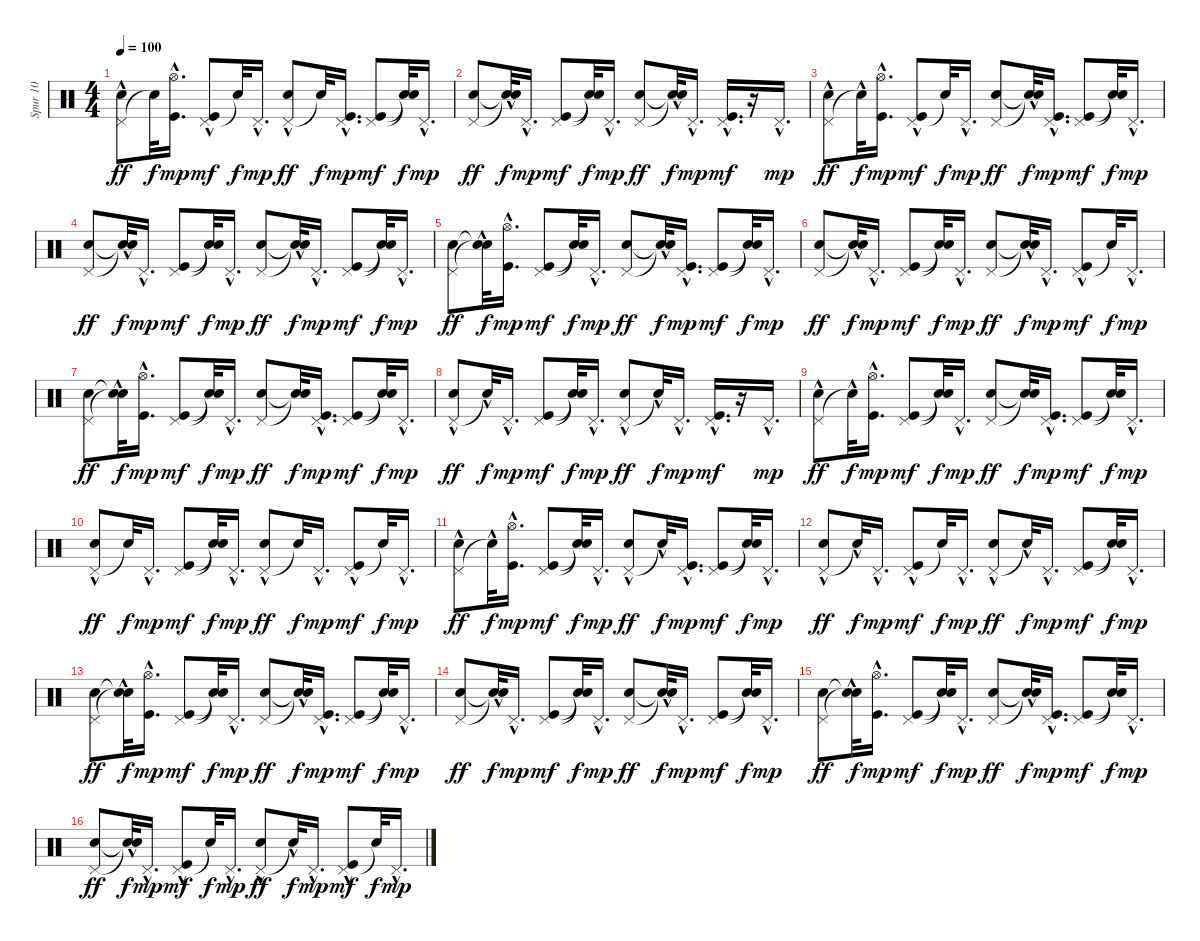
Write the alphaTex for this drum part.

\track ("Spur 10" "Spur 10") {instrument percussion}
\staff {score}
\articulation defaults
\ts (4 4)
\tempo 100
\clef neutral
\ks c
("Pedal Hi-Hat (hit)"{hac} "Hand Clap (hit)").8{dy ff} "Snare (hit)"{t}.32{dy f} ("Hi-Hat (open)"{hac} "Kick (hit)"{hac}).16{d dy mp} ("Pedal Hi-Hat (hit)" "Kick (hit)"{hac}).8{dy mf} "Snare (hit)"{t}.32{dy f} "Pedal Hi-Hat (hit)"{hac}.16{d dy mp} ("Pedal Hi-Hat (hit)" "Hand Clap (hit)"{hac}).8{dy ff} "Snare (hit)"{t}.32{dy f} ("Pedal Hi-Hat (hit)"{hac} "Kick (hit)"{hac}).16{d dy mp} ("Pedal Hi-Hat (hit)" "Kick (hit)").8{dy mf} ("Snare (hit)"{t} "Snare (hit)"{t}).32{dy f} "Pedal Hi-Hat (hit)"{hac}.16{d dy mp} |
("Pedal Hi-Hat (hit)" "Hand Clap (hit)").8{dy ff} ("Snare (hit)"{t} "Snare (hit)"{hac t}).32{dy f} "Pedal Hi-Hat (hit)"{hac}.16{d dy mp} ("Pedal Hi-Hat (hit)" "Kick (hit)").8{dy mf} ("Snare (hit)"{t} "Snare (hit)"{t}).32{dy f} "Pedal Hi-Hat (hit)"{hac}.16{d dy mp} ("Pedal Hi-Hat (hit)" "Hand Clap (hit)").8{dy ff} ("Snare (hit)"{t} "Snare (hit)"{hac t}).32{dy f} "Pedal Hi-Hat (hit)"{hac}.16{d dy mp} ("Pedal Hi-Hat (hit)"{hac} "Kick (hit)"{hac}).16{d dy mf} r.16 "Pedal Hi-Hat (hit)"{hac}.16{d dy mp} |
("Pedal Hi-Hat (hit)"{hac} "Hand Clap (hit)").8{dy ff} "Snare (hit)"{hac t}.32{dy f} ("Hi-Hat (open)" "Kick (hit)"{hac}).16{d dy mp} ("Pedal Hi-Hat (hit)"{hac} "Kick (hit)").8{dy mf} "Snare (hit)"{t}.32{dy f} "Pedal Hi-Hat (hit)"{hac}.16{d dy mp} ("Pedal Hi-Hat (hit)" "Hand Clap (hit)").8{dy ff} ("Snare (hit)"{t} "Snare (hit)"{hac t}).32{dy f} ("Pedal Hi-Hat (hit)"{hac} "Kick (hit)"{hac}).16{d dy mp} ("Pedal Hi-Hat (hit)" "Kick (hit)").8{dy mf} ("Snare (hit)"{t} "Snare (hit)"{t}).32{dy f} "Pedal Hi-Hat (hit)"{hac}.16{d dy mp} |
("Pedal Hi-Hat (hit)" "Hand Clap (hit)").8{dy ff} ("Snare (hit)"{t} "Snare (hit)"{hac t}).32{dy f} "Pedal Hi-Hat (hit)"{hac}.16{d dy mp} ("Pedal Hi-Hat (hit)" "Kick (hit)").8{dy mf} ("Snare (hit)"{t} "Snare (hit)"{t}).32{dy f} "Pedal Hi-Hat (hit)"{hac}.16{d dy mp} ("Pedal Hi-Hat (hit)" "Hand Clap (hit)").8{dy ff} ("Snare (hit)"{t} "Snare (hit)"{hac t}).32{dy f} "Pedal Hi-Hat (hit)"{hac}.16{d dy mp} ("Pedal Hi-Hat (hit)" "Kick (hit)").8{dy mf} ("Snare (hit)"{t} "Snare (hit)"{t}).32{dy f} "Pedal Hi-Hat (hit)"{hac}.16{d dy mp} |
("Pedal Hi-Hat (hit)" "Hand Clap (hit)").8{dy ff} ("Snare (hit)"{t} "Snare (hit)"{hac t}).32{dy f} ("Hi-Hat (open)"{hac} "Kick (hit)"{hac}).16{d dy mp} ("Pedal Hi-Hat (hit)" "Kick (hit)").8{dy mf} ("Snare (hit)"{t} "Snare (hit)"{t}).32{dy f} "Pedal Hi-Hat (hit)"{hac}.16{d dy mp} ("Pedal Hi-Hat (hit)" "Hand Clap (hit)").8{dy ff} ("Snare (hit)"{t} "Snare (hit)"{hac t}).32{dy f} ("Pedal Hi-Hat (hit)"{hac} "Kick (hit)"{hac}).16{d dy mp} ("Pedal Hi-Hat (hit)" "Kick (hit)").8{dy mf} ("Snare (hit)"{t} "Snare (hit)"{t}).32{dy f} "Pedal Hi-Hat (hit)"{hac}.16{d dy mp} |
("Pedal Hi-Hat (hit)" "Hand Clap (hit)").8{dy ff} ("Snare (hit)"{t} "Snare (hit)"{hac t}).32{dy f} "Pedal Hi-Hat (hit)"{hac}.16{d dy mp} ("Pedal Hi-Hat (hit)" "Kick (hit)").8{dy mf} ("Snare (hit)"{t} "Snare (hit)"{t}).32{dy f} "Pedal Hi-Hat (hit)"{hac}.16{d dy mp} ("Pedal Hi-Hat (hit)" "Hand Clap (hit)").8{dy ff} ("Snare (hit)"{t} "Snare (hit)"{hac t}).32{dy f} "Pedal Hi-Hat (hit)"{hac}.16{d dy mp} ("Pedal Hi-Hat (hit)" "Kick (hit)"{hac}).8{dy mf} "Snare (hit)"{t}.32{dy f} "Pedal Hi-Hat (hit)"{hac}.16{d dy mp} |
("Pedal Hi-Hat (hit)" "Hand Clap (hit)").8{dy ff} ("Snare (hit)"{t} "Snare (hit)"{hac t}).32{dy f} ("Hi-Hat (open)" "Kick (hit)"{hac}).16{d dy mp} ("Pedal Hi-Hat (hit)" "Kick (hit)").8{dy mf} ("Snare (hit)"{t} "Snare (hit)"{t}).32{dy f} "Pedal Hi-Hat (hit)"{hac}.16{d dy mp} ("Pedal Hi-Hat (hit)" "Hand Clap (hit)").8{dy ff} ("Snare (hit)"{t} "Snare (hit)"{t}).32{dy f} ("Pedal Hi-Hat (hit)"{hac} "Kick (hit)"{hac}).16{d dy mp} ("Pedal Hi-Hat (hit)" "Kick (hit)").8{dy mf} ("Snare (hit)"{t} "Snare (hit)"{t}).32{dy f} "Pedal Hi-Hat (hit)"{hac}.16{d dy mp} |
("Pedal Hi-Hat (hit)"{hac} "Hand Clap (hit)").8{dy ff} "Snare (hit)"{hac t}.32{dy f} "Pedal Hi-Hat (hit)"{hac}.16{d dy mp} ("Pedal Hi-Hat (hit)" "Kick (hit)").8{dy mf} ("Snare (hit)"{t} "Snare (hit)"{t}).32{dy f} "Pedal Hi-Hat (hit)"{hac}.16{d dy mp} ("Pedal Hi-Hat (hit)"{hac} "Hand Clap (hit)").8{dy ff} "Snare (hit)"{hac t}.32{dy f} "Pedal Hi-Hat (hit)"{hac}.16{d dy mp} ("Pedal Hi-Hat (hit)"{hac} "Kick (hit)"{hac}).16{d dy mf} r.16 "Pedal Hi-Hat (hit)"{hac}.16{d dy mp} |
("Pedal Hi-Hat (hit)"{hac} "Hand Clap (hit)").8{dy ff} "Snare (hit)"{hac t}.32{dy f} ("Hi-Hat (open)"{hac} "Kick (hit)"{hac}).16{d dy mp} ("Pedal Hi-Hat (hit)" "Kick (hit)").8{dy mf} ("Snare (hit)"{t} "Snare (hit)"{t}).32{dy f} "Pedal Hi-Hat (hit)"{hac}.16{d dy mp} ("Pedal Hi-Hat (hit)" "Hand Clap (hit)").8{dy ff} ("Snare (hit)"{t} "Snare (hit)"{t}).32{dy f} ("Pedal Hi-Hat (hit)"{hac} "Kick (hit)"{hac}).16{d dy mp} ("Pedal Hi-Hat (hit)" "Kick (hit)").8{dy mf} ("Snare (hit)"{t} "Snare (hit)"{t}).32{dy f} "Pedal Hi-Hat (hit)"{hac}.16{d dy mp} |
("Pedal Hi-Hat (hit)" "Hand Clap (hit)"{hac}).8{dy ff} "Snare (hit)"{t}.32{dy f} "Pedal Hi-Hat (hit)"{hac}.16{d dy mp} ("Pedal Hi-Hat (hit)" "Kick (hit)").8{dy mf} ("Snare (hit)"{t} "Snare (hit)"{t}).32{dy f} "Pedal Hi-Hat (hit)"{hac}.16{d dy mp} ("Pedal Hi-Hat (hit)" "Hand Clap (hit)"{hac}).8{dy ff} "Snare (hit)"{t}.32{dy f} "Pedal Hi-Hat (hit)"{hac}.16{d dy mp} ("Pedal Hi-Hat (hit)" "Kick (hit)"{hac}).8{dy mf} "Snare (hit)"{t}.32{dy f} "Pedal Hi-Hat (hit)"{hac}.16{d dy mp} |
("Pedal Hi-Hat (hit)"{hac} "Hand Clap (hit)").8{dy ff} "Snare (hit)"{hac t}.32{dy f} ("Hi-Hat (open)" "Kick (hit)"{hac}).16{d dy mp} ("Pedal Hi-Hat (hit)" "Kick (hit)").8{dy mf} ("Snare (hit)"{t} "Snare (hit)"{t}).32{dy f} "Pedal Hi-Hat (hit)"{hac}.16{d dy mp} ("Pedal Hi-Hat (hit)"{hac} "Hand Clap (hit)").8{dy ff} "Snare (hit)"{hac t}.32{dy f} ("Pedal Hi-Hat (hit)"{hac} "Kick (hit)"{hac}).16{d dy mp} ("Pedal Hi-Hat (hit)" "Kick (hit)").8{dy mf} ("Snare (hit)"{t} "Snare (hit)"{t}).32{dy f} "Pedal Hi-Hat (hit)"{hac}.16{d dy mp} |
("Pedal Hi-Hat (hit)"{hac} "Hand Clap (hit)").8{dy ff} "Snare (hit)"{hac t}.32{dy f} "Pedal Hi-Hat (hit)"{hac}.16{d dy mp} ("Pedal Hi-Hat (hit)"{hac} "Kick (hit)").8{dy mf} "Snare (hit)"{t}.32{dy f} "Pedal Hi-Hat (hit)"{hac}.16{d dy mp} ("Pedal Hi-Hat (hit)"{hac} "Hand Clap (hit)").8{dy ff} "Snare (hit)"{hac t}.32{dy f} "Pedal Hi-Hat (hit)"{hac}.16{d dy mp} ("Pedal Hi-Hat (hit)" "Kick (hit)").8{dy mf} ("Snare (hit)"{t} "Snare (hit)"{t}).32{dy f} "Pedal Hi-Hat (hit)"{hac}.16{d dy mp} |
("Pedal Hi-Hat (hit)" "Hand Clap (hit)").8{dy ff} ("Snare (hit)"{t} "Snare (hit)"{hac t}).32{dy f} ("Hi-Hat (open)" "Kick (hit)"{hac}).16{d dy mp} ("Pedal Hi-Hat (hit)" "Kick (hit)").8{dy mf} ("Snare (hit)"{t} "Snare (hit)"{t}).32{dy f} "Pedal Hi-Hat (hit)"{hac}.16{d dy mp} ("Pedal Hi-Hat (hit)" "Hand Clap (hit)").8{dy ff} ("Snare (hit)"{t} "Snare (hit)"{hac t}).32{dy f} ("Pedal Hi-Hat (hit)"{hac} "Kick (hit)"{hac}).16{d dy mp} ("Pedal Hi-Hat (hit)" "Kick (hit)").8{dy mf} ("Snare (hit)"{t} "Snare (hit)"{t}).32{dy f} "Pedal Hi-Hat (hit)"{hac}.16{d dy mp} |
("Pedal Hi-Hat (hit)" "Hand Clap (hit)").8{dy ff} ("Snare (hit)"{t} "Snare (hit)"{hac t}).32{dy f} "Pedal Hi-Hat (hit)"{hac}.16{d dy mp} ("Pedal Hi-Hat (hit)" "Kick (hit)").8{dy mf} ("Snare (hit)"{t} "Snare (hit)"{t}).32{dy f} "Pedal Hi-Hat (hit)"{hac}.16{d dy mp} ("Pedal Hi-Hat (hit)" "Hand Clap (hit)").8{dy ff} ("Snare (hit)"{t} "Snare (hit)"{hac t}).32{dy f} "Pedal Hi-Hat (hit)"{hac}.16{d dy mp} ("Pedal Hi-Hat (hit)" "Kick (hit)").8{dy mf} ("Snare (hit)"{t} "Snare (hit)"{t}).32{dy f} "Pedal Hi-Hat (hit)"{hac}.16{d dy mp} |
("Pedal Hi-Hat (hit)" "Hand Clap (hit)").8{dy ff} ("Snare (hit)"{t} "Snare (hit)"{hac t}).32{dy f} ("Hi-Hat (open)" "Kick (hit)"{hac}).16{d dy mp} ("Pedal Hi-Hat (hit)" "Kick (hit)").8{dy mf} ("Snare (hit)"{t} "Snare (hit)"{t}).32{dy f} "Pedal Hi-Hat (hit)"{hac}.16{d dy mp} ("Pedal Hi-Hat (hit)" "Hand Clap (hit)").8{dy ff} ("Snare (hit)"{t} "Snare (hit)"{hac t}).32{dy f} ("Pedal Hi-Hat (hit)"{hac} "Kick (hit)"{hac}).16{d dy mp} ("Pedal Hi-Hat (hit)" "Kick (hit)").8{dy mf} ("Snare (hit)"{t} "Snare (hit)"{t}).32{dy f} "Pedal Hi-Hat (hit)"{hac}.16{d dy mp} |
("Pedal Hi-Hat (hit)" "Hand Clap (hit)").8{dy ff} ("Snare (hit)"{t} "Snare (hit)"{hac t}).32{dy f} "Pedal Hi-Hat (hit)"{hac}.16{d dy mp} ("Pedal Hi-Hat (hit)"{hac} "Kick (hit)").8{dy mf} "Snare (hit)"{t}.32{dy f} "Pedal Hi-Hat (hit)"{hac}.16{d dy mp} ("Pedal Hi-Hat (hit)"{hac} "Hand Clap (hit)").8{dy ff} "Snare (hit)"{hac t}.32{dy f} "Pedal Hi-Hat (hit)"{hac}.16{d dy mp} ("Pedal Hi-Hat (hit)"{hac} "Kick (hit)").8{dy mf} "Snare (hit)"{t}.32{dy f} "Pedal Hi-Hat (hit)"{hac}.16{d dy mp}
